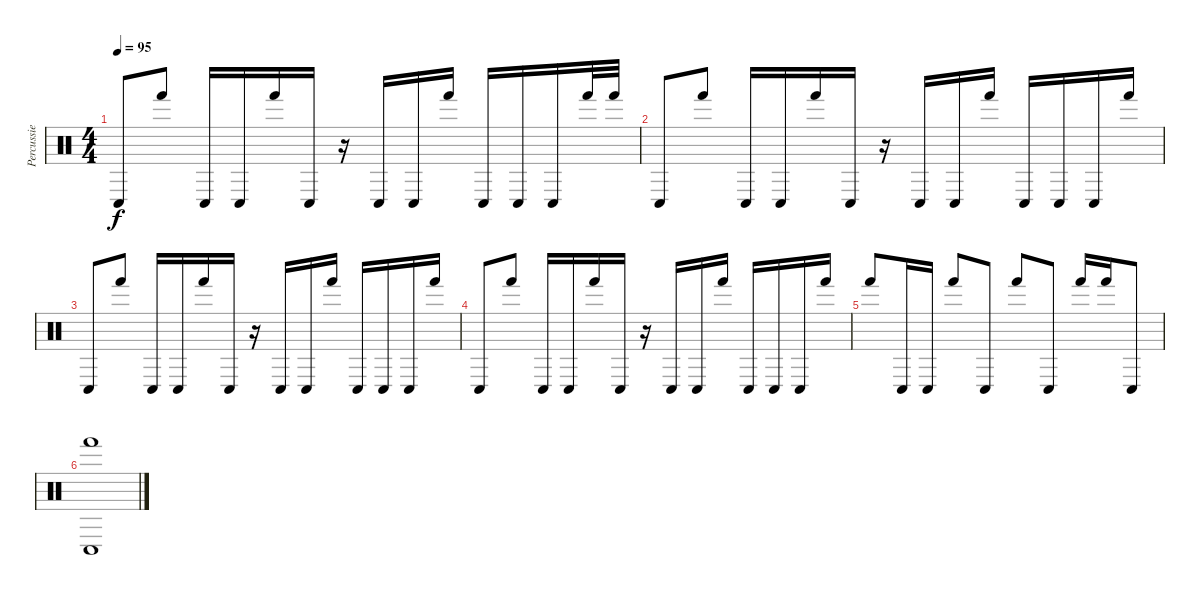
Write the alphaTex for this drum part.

\track ("Percussie" "Percussie") {instrument percussion}
\staff {score}
\articulation defaults
\ts (4 4)
\tempo 95
\clef neutral
\ks c "Conga low (hit)".8{dy f} "Hand (hit)".8 "Conga low (hit)".16 "Conga low (hit)".16 "Hand (hit)".16 "Conga low (hit)".16
r.16 "Conga low (hit)".16 "Conga low (hit)".16 "Hand (hit)".16 "Conga low (hit)".16 "Conga low (hit)".16 "Conga low (hit)".16 "Hand (hit)".32 "Hand (hit)".32 |
"Conga low (hit)".8 "Hand (hit)".8 "Conga low (hit)".16 "Conga low (hit)".16 "Hand (hit)".16 "Conga low (hit)".16 r.16 "Conga low (hit)".16 "Conga low (hit)".16 "Hand (hit)".16 "Conga low (hit)".16 "Conga low (hit)".16 "Conga low (hit)".16 "Hand (hit)".16 |
"Conga low (hit)".8 "Hand (hit)".8 "Conga low (hit)".16 "Conga low (hit)".16 "Hand (hit)".16 "Conga low (hit)".16 r.16 "Conga low (hit)".16 "Conga low (hit)".16 "Hand (hit)".16 "Conga low (hit)".16 "Conga low (hit)".16 "Conga low (hit)".16 "Hand (hit)".16 |
"Conga low (hit)".8 "Hand (hit)".8 "Conga low (hit)".16 "Conga low (hit)".16 "Hand (hit)".16 "Conga low (hit)".16 r.16 "Conga low (hit)".16 "Conga low (hit)".16 "Hand (hit)".16 "Conga low (hit)".16 "Conga low (hit)".16 "Conga low (hit)".16 "Hand (hit)".16 |
"Hand (hit)".8 "Conga low (hit)".16 "Conga low (hit)".16 "Hand (hit)".8 "Conga low (hit)".8 "Hand (hit)".8 "Conga low (hit)".8 "Hand (hit)".16 "Hand (hit)".16 "Conga low (hit)".8 |
("Conga low (hit)" "Hand (hit)").1
